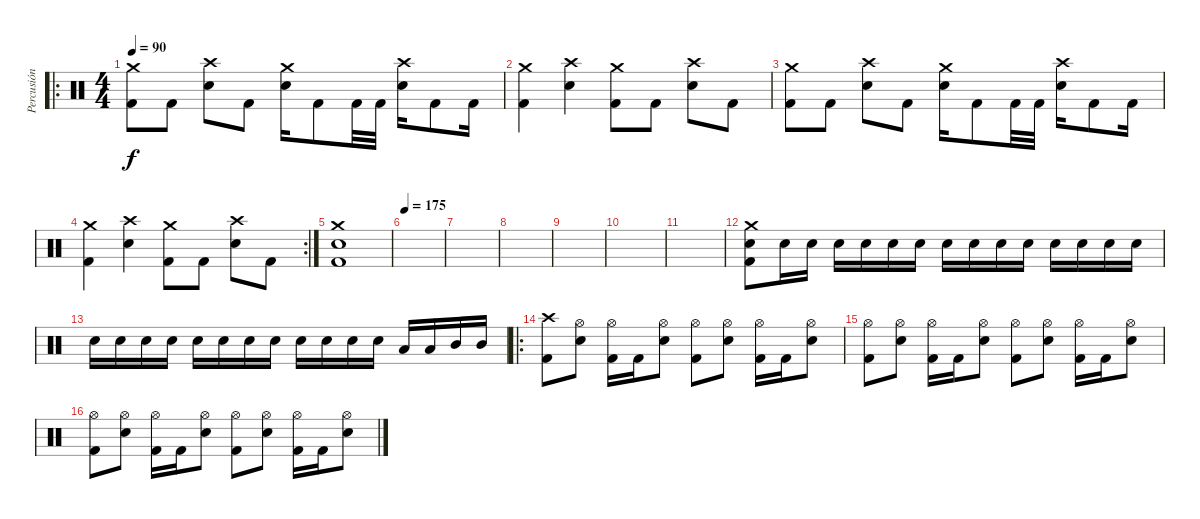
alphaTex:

\track ("Percusión" "Percusión") {instrument percussion}
\staff {score}
\articulation defaults
\ro
\ts (4 4)
\tempo 90
\clef neutral
\ks c
("Crash medium (hit)" "Kick (hit) 2").8{dy f} "Kick (hit) 2".8 ("Crash high (hit)" "Electric Snare (hit)").8 "Kick (hit) 2".8 ("Crash medium (hit)" "Electric Snare (hit)").16 "Kick (hit) 2".8 "Kick (hit) 2".32 "Kick (hit) 2".32 ("Crash high (hit)" "Electric Snare (hit)").16 "Kick (hit) 2".8 "Kick (hit) 2".16 |
("Crash medium (hit)" "Kick (hit) 2").4 ("Crash high (hit)" "Electric Snare (hit)").4 ("Crash medium (hit)" "Kick (hit) 2").8 "Kick (hit) 2".8 ("Crash high (hit)" "Electric Snare (hit)").8 "Kick (hit) 2".8 |
("Crash medium (hit)" "Kick (hit) 2").8 "Kick (hit) 2".8 ("Crash high (hit)" "Electric Snare (hit)").8 "Kick (hit) 2".8 ("Crash medium (hit)" "Electric Snare (hit)").16 "Kick (hit) 2".8 "Kick (hit) 2".32 "Kick (hit) 2".32 ("Crash high (hit)" "Electric Snare (hit)").16 "Kick (hit) 2".8 "Kick (hit) 2".16 |
\rc 2
("Crash medium (hit)" "Kick (hit) 2").4 ("Crash high (hit)" "Electric Snare (hit)").4 ("Crash medium (hit)" "Kick (hit) 2").8 "Kick (hit) 2".8 ("Crash high (hit)" "Electric Snare (hit)").8 "Kick (hit) 2".8 |
("Crash medium (hit)" "Electric Snare (hit)" "Kick (hit) 2").1 |
\tempo 175
|
|
|
|
|
|
("Crash medium (hit)" "Electric Snare (hit)" "Kick (hit) 2").8 "Electric Snare (hit)".16 "Electric Snare (hit)".16 "Electric Snare (hit)".16 "Electric Snare (hit)".16 "Electric Snare (hit)".16 "Electric Snare (hit)".16 "Electric Snare (hit)".16 "Electric Snare (hit)".16 "Electric Snare (hit)".16 "Electric Snare (hit)".16 "Electric Snare (hit)".16 "Electric Snare (hit)".16 "Electric Snare (hit)".16 "Electric Snare (hit)".16 |
"Electric Snare (hit)".16 "Electric Snare (hit)".16 "Electric Snare (hit)".16 "Electric Snare (hit)".16 "Electric Snare (hit)".16 "Electric Snare (hit)".16 "Electric Snare (hit)".16 "Electric Snare (hit)".16 "Electric Snare (hit)".16 "Electric Snare (hit)".16 "Electric Snare (hit)".16 "Electric Snare (hit)".16 "Low Tom (hit)".16 "Low Tom (hit)".16 "Mid Tom (hit)".16 "Mid Tom (hit)".16 |
\ro
("Crash high (hit)" "Kick (hit) 2").8 ("Hi-Hat (open)" "Electric Snare (hit)").8 ("Hi-Hat (open)" "Kick (hit) 2").16 "Kick (hit) 2".16 ("Hi-Hat (open)" "Electric Snare (hit)").8 ("Hi-Hat (open)" "Kick (hit) 2").8 ("Hi-Hat (open)" "Electric Snare (hit)").8 ("Hi-Hat (open)" "Kick (hit) 2").16 "Kick (hit) 2".16 ("Hi-Hat (open)" "Electric Snare (hit)").8 |
("Hi-Hat (open)" "Kick (hit) 2").8 ("Hi-Hat (open)" "Electric Snare (hit)").8 ("Hi-Hat (open)" "Kick (hit) 2").16 "Kick (hit) 2".16 ("Hi-Hat (open)" "Electric Snare (hit)").8 ("Hi-Hat (open)" "Kick (hit) 2").8 ("Hi-Hat (open)" "Electric Snare (hit)").8 ("Hi-Hat (open)" "Kick (hit) 2").16 "Kick (hit) 2".16 ("Hi-Hat (open)" "Electric Snare (hit)").8 |
("Hi-Hat (open)" "Kick (hit) 2").8 ("Hi-Hat (open)" "Electric Snare (hit)").8 ("Hi-Hat (open)" "Kick (hit) 2").16 "Kick (hit) 2".16 ("Hi-Hat (open)" "Electric Snare (hit)").8 ("Hi-Hat (open)" "Kick (hit) 2").8 ("Hi-Hat (open)" "Electric Snare (hit)").8 ("Hi-Hat (open)" "Kick (hit) 2").16 "Kick (hit) 2".16 ("Hi-Hat (open)" "Electric Snare (hit)").8
